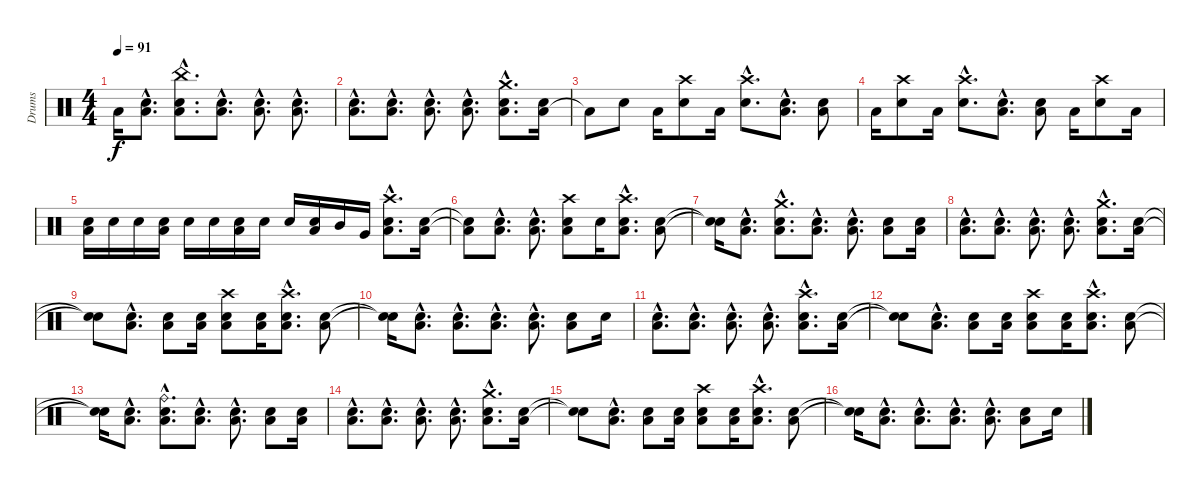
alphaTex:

\track ("Drums" "Drums") {instrument percussion}
\staff {score}
\articulation defaults
\ts (4 4)
\tempo 91
\clef neutral
\ks c "Low Tom (hit)"{t}.16{dy f}
("Low Tom (hit)"{hac} "Electric Snare (hit)"{hac}).8{d} ("China (hit)"{hac} "Low Tom (hit)"{hac} "Electric Snare (hit)"{hac}).8{d} ("Low Tom (hit)"{hac} "Electric Snare (hit)"{hac}).8{d} ("Low Tom (hit)"{hac} "Electric Snare (hit)"{hac}).8{d} ("Low Tom (hit)"{hac} "Electric Snare (hit)"{hac}).8{d} |
("Low Tom (hit)"{hac} "Electric Snare (hit)"{hac}).8{d} ("Low Tom (hit)"{hac} "Electric Snare (hit)"{hac}).8{d} ("Low Tom (hit)"{hac} "Electric Snare (hit)"{hac}).8{d} ("Low Tom (hit)"{hac} "Electric Snare (hit)"{hac}).8{d} ("Crash medium (hit)"{hac} "Low Tom (hit)"{hac} "Electric Snare (hit)"{hac}).8{d} ("Low Tom (hit)" "Electric Snare (hit)").16 |
"Low Tom (hit)"{t}.8 "Electric Snare (hit)".8 "Low Tom (hit)".16 ("Crash high (hit)" "Electric Snare (hit)").8 "Low Tom (hit)".16 ("Crash high (hit)"{hac} "Electric Snare (hit)"{hac}).8{d} ("Low Tom (hit)"{hac} "Electric Snare (hit)"{hac}).8{d} ("Low Tom (hit)" "Electric Snare (hit)").8 |
"Low Tom (hit)".16 ("Crash high (hit)" "Electric Snare (hit)").8 "Low Tom (hit)".16 ("Crash high (hit)"{hac} "Electric Snare (hit)"{hac}).8{d} ("Low Tom (hit)"{hac} "Electric Snare (hit)"{hac}).8{d} ("Low Tom (hit)" "Electric Snare (hit)").8 "Low Tom (hit)".16 ("Crash high (hit)" "Electric Snare (hit)").8 "Low Tom (hit)".16 |
("Low Tom (hit)" "Electric Snare (hit)").16 "Electric Snare (hit)".16 "Electric Snare (hit)".16 ("Low Tom (hit)" "Electric Snare (hit)").16 "Electric Snare (hit)".16 "Electric Snare (hit)".16 ("Low Tom (hit)" "Electric Snare (hit)").16 "Electric Snare (hit)".16 "Electric Snare (hit)".16 ("Low Tom (hit)" "Electric Snare (hit)").16 "Mid Tom (hit)".16 "Very Low Tom (hit)".16 ("Crash high (hit)"{hac} "Low Tom (hit)"{hac} "Electric Snare (hit)"{hac}).8{d} ("Low Tom (hit)" "Electric Snare (hit)").16 |
("Low Tom (hit)"{t} "Snare (hit)"{t}).8 ("Low Tom (hit)"{hac} "Electric Snare (hit)"{hac}).8{d} ("Low Tom (hit)"{hac} "Electric Snare (hit)"{hac}).8{d} ("Crash high (hit)" "Low Tom (hit)" "Electric Snare (hit)").8 "Electric Snare (hit)".16 ("Crash high (hit)"{hac} "Low Tom (hit)"{hac} "Electric Snare (hit)"{hac}).8{d} ("Low Tom (hit)" "Electric Snare (hit)").8 |
("Snare (hit)"{t} "Snare (hit)"{t}).16 ("Low Tom (hit)"{hac} "Electric Snare (hit)"{hac}).8{d} ("Crash medium (hit)"{hac} "Low Tom (hit)"{hac} "Electric Snare (hit)"{hac}).8{d} ("Low Tom (hit)"{hac} "Electric Snare (hit)"{hac}).8{d} ("Low Tom (hit)"{hac} "Electric Snare (hit)"{hac}).8{d} ("Low Tom (hit)" "Electric Snare (hit)").8 ("Low Tom (hit)" "Electric Snare (hit)").16 |
("Low Tom (hit)"{hac} "Electric Snare (hit)"{hac}).8{d} ("Low Tom (hit)"{hac} "Electric Snare (hit)"{hac}).8{d} ("Low Tom (hit)"{hac} "Electric Snare (hit)"{hac}).8{d} ("Low Tom (hit)"{hac} "Electric Snare (hit)"{hac}).8{d} ("Crash medium (hit)"{hac} "Low Tom (hit)"{hac} "Electric Snare (hit)"{hac}).8{d} ("Low Tom (hit)" "Electric Snare (hit)").16 |
("Snare (hit)"{t} "Snare (hit)"{t}).8 ("Low Tom (hit)"{hac} "Electric Snare (hit)"{hac}).8{d} ("Low Tom (hit)" "Electric Snare (hit)").8 ("Low Tom (hit)" "Electric Snare (hit)").16 ("Crash high (hit)" "Low Tom (hit)" "Electric Snare (hit)").8 ("Low Tom (hit)" "Electric Snare (hit)").16 ("Crash high (hit)"{hac} "Low Tom (hit)"{hac} "Electric Snare (hit)"{hac}).8{d} ("Low Tom (hit)" "Electric Snare (hit)").8 |
("Snare (hit)"{t} "Snare (hit)"{t}).16 ("Low Tom (hit)"{hac} "Electric Snare (hit)"{hac}).8{d} ("Low Tom (hit)"{hac} "Electric Snare (hit)"{hac}).8{d} ("Low Tom (hit)"{hac} "Electric Snare (hit)"{hac}).8{d} ("Low Tom (hit)"{hac} "Electric Snare (hit)"{hac}).8{d} ("Low Tom (hit)" "Electric Snare (hit)").8 "Electric Snare (hit)".16 |
("Low Tom (hit)"{hac} "Electric Snare (hit)"{hac}).8{d} ("Low Tom (hit)"{hac} "Electric Snare (hit)"{hac}).8{d} ("Low Tom (hit)"{hac} "Electric Snare (hit)"{hac}).8{d} ("Low Tom (hit)"{hac} "Electric Snare (hit)"{hac}).8{d} ("Crash high (hit)"{hac} "Low Tom (hit)"{hac} "Electric Snare (hit)"{hac}).8{d} ("Low Tom (hit)" "Electric Snare (hit)").16 |
("Snare (hit)"{t} "Snare (hit)"{t}).8 ("Low Tom (hit)"{hac} "Electric Snare (hit)"{hac}).8{d} ("Low Tom (hit)" "Electric Snare (hit)").8 ("Low Tom (hit)" "Electric Snare (hit)").16 ("Crash high (hit)" "Low Tom (hit)" "Electric Snare (hit)").8 ("Low Tom (hit)" "Electric Snare (hit)").16 ("Crash high (hit)"{hac} "Low Tom (hit)"{hac} "Electric Snare (hit)"{hac}).8{d} ("Low Tom (hit)" "Electric Snare (hit)").8 |
("Snare (hit)"{t} "Snare (hit)"{t}).16 ("Low Tom (hit)"{hac} "Electric Snare (hit)"{hac}).8{d} ("Ride (bell)"{hac} "Low Tom (hit)"{hac} "Electric Snare (hit)"{hac}).8{d} ("Low Tom (hit)"{hac} "Electric Snare (hit)"{hac}).8{d} ("Low Tom (hit)"{hac} "Electric Snare (hit)"{hac}).8{d} ("Low Tom (hit)" "Electric Snare (hit)").8 ("Low Tom (hit)" "Electric Snare (hit)").16 |
("Low Tom (hit)"{hac} "Electric Snare (hit)"{hac}).8{d} ("Low Tom (hit)"{hac} "Electric Snare (hit)"{hac}).8{d} ("Low Tom (hit)"{hac} "Electric Snare (hit)"{hac}).8{d} ("Low Tom (hit)"{hac} "Electric Snare (hit)"{hac}).8{d} ("Crash medium (hit)"{hac} "Low Tom (hit)"{hac} "Electric Snare (hit)"{hac}).8{d} ("Low Tom (hit)" "Electric Snare (hit)").16 |
("Snare (hit)"{t} "Snare (hit)"{t}).8 ("Low Tom (hit)"{hac} "Electric Snare (hit)"{hac}).8{d} ("Low Tom (hit)" "Electric Snare (hit)").8 ("Low Tom (hit)" "Electric Snare (hit)").16 ("Crash high (hit)" "Low Tom (hit)" "Electric Snare (hit)").8 ("Low Tom (hit)" "Electric Snare (hit)").16 ("Crash high (hit)"{hac} "Low Tom (hit)"{hac} "Electric Snare (hit)"{hac}).8{d} ("Low Tom (hit)" "Electric Snare (hit)").8 |
("Snare (hit)"{t} "Snare (hit)"{t}).16 ("Low Tom (hit)"{hac} "Electric Snare (hit)"{hac}).8{d} ("Low Tom (hit)"{hac} "Electric Snare (hit)"{hac}).8{d} ("Low Tom (hit)"{hac} "Electric Snare (hit)"{hac}).8{d} ("Low Tom (hit)"{hac} "Electric Snare (hit)"{hac}).8{d} ("Low Tom (hit)" "Electric Snare (hit)").8 "Electric Snare (hit)".16
